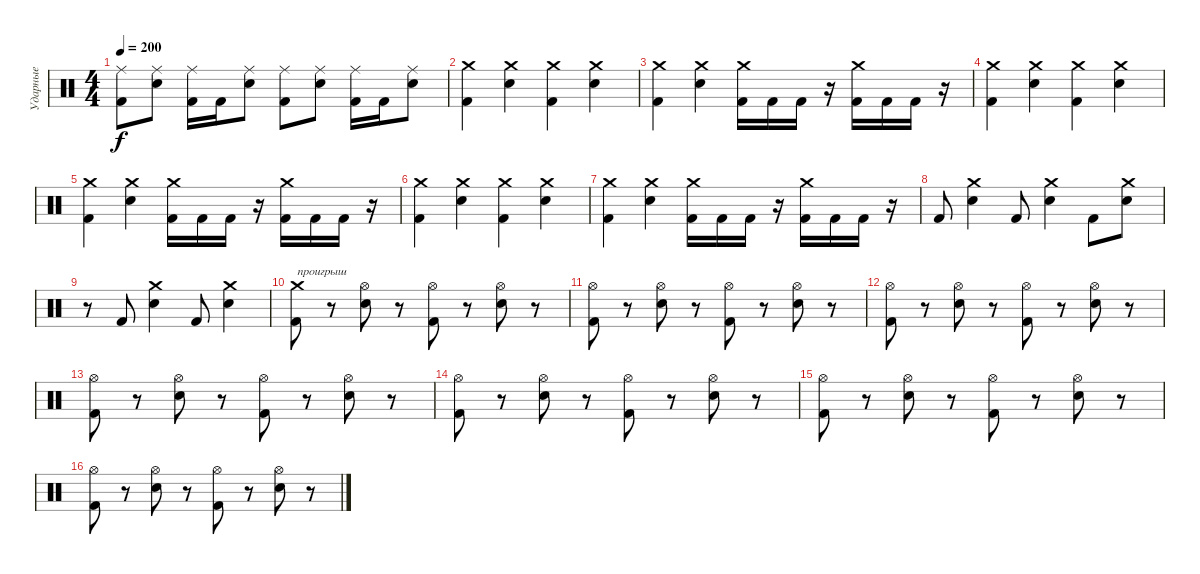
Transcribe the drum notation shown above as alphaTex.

\track ("Ударные" "Ударные") {instrument percussion}
\staff {score}
\articulation defaults
\ts (4 4)
\tempo 200
\clef neutral
\ks c
("Kick (hit) 2" "Ride (middle)").8{dy f} ("Electric Snare (hit)" "Ride (middle)").8 ("Kick (hit) 2" "Ride (middle)").16 "Kick (hit) 2".16 ("Electric Snare (hit)" "Ride (middle)").8 ("Kick (hit) 2" "Ride (middle)").8 ("Electric Snare (hit)" "Ride (middle)").8 ("Kick (hit) 2" "Ride (middle)").16 "Kick (hit) 2".16 ("Electric Snare (hit)" "Ride (middle)").8 |
("Kick (hit) 2" "Crash medium (hit)").4 ("Snare (hit) 2" "Crash medium (hit)").4 ("Kick (hit) 2" "Crash medium (hit)").4 ("Snare (hit) 2" "Crash medium (hit)").4 |
("Kick (hit) 2" "Crash medium (hit)").4 ("Snare (hit) 2" "Crash medium (hit)").4 ("Kick (hit) 2" "Crash medium (hit)").16 "Kick (hit) 2".16 "Kick (hit) 2".16 r.16 ("Kick (hit) 2" "Crash medium (hit)").16 "Kick (hit) 2".16 "Kick (hit) 2".16 r.16 |
("Kick (hit) 2" "Crash medium (hit)").4 ("Snare (hit) 2" "Crash medium (hit)").4 ("Kick (hit) 2" "Crash medium (hit)").4 ("Snare (hit) 2" "Crash medium (hit)").4 |
("Kick (hit) 2" "Crash medium (hit)").4 ("Snare (hit) 2" "Crash medium (hit)").4 ("Kick (hit) 2" "Crash medium (hit)").16 "Kick (hit) 2".16 "Kick (hit) 2".16 r.16 ("Kick (hit) 2" "Crash medium (hit)").16 "Kick (hit) 2".16 "Kick (hit) 2".16 r.16 |
("Kick (hit) 2" "Crash medium (hit)").4 ("Snare (hit) 2" "Crash medium (hit)").4 ("Kick (hit) 2" "Crash medium (hit)").4 ("Snare (hit) 2" "Crash medium (hit)").4 |
("Kick (hit) 2" "Crash medium (hit)").4 ("Snare (hit) 2" "Crash medium (hit)").4 ("Kick (hit) 2" "Crash medium (hit)").16 "Kick (hit) 2".16 "Kick (hit) 2".16 r.16 ("Kick (hit) 2" "Crash medium (hit)").16 "Kick (hit) 2".16 "Kick (hit) 2".16 r.16 |
"Kick (hit) 2".8 ("Snare (hit) 2" "Crash medium (hit)").4 "Kick (hit) 2".8 ("Snare (hit) 2" "Crash medium (hit)").4 "Kick (hit) 2".8 ("Snare (hit) 2" "Crash medium (hit)").8 |
r.8 "Kick (hit) 2".8 ("Snare (hit) 2" "Crash medium (hit)").4 "Kick (hit) 2".8 ("Snare (hit) 2" "Crash medium (hit)").4 |
("Crash medium (hit)" "Kick (hit) 2").8{txt "проигрыш"} r.8 ("Hi-Hat (open)" "Snare (hit) 2").8 r.8 ("Hi-Hat (open)" "Kick (hit) 2").8 r.8 ("Hi-Hat (open)" "Snare (hit) 2").8 r.8 |
("Hi-Hat (open)" "Kick (hit) 2").8 r.8 ("Hi-Hat (open)" "Snare (hit) 2").8 r.8 ("Hi-Hat (open)" "Kick (hit) 2").8 r.8 ("Hi-Hat (open)" "Snare (hit) 2").8 r.8 |
("Hi-Hat (open)" "Kick (hit) 2").8 r.8 ("Hi-Hat (open)" "Snare (hit) 2").8 r.8 ("Hi-Hat (open)" "Kick (hit) 2").8 r.8 ("Hi-Hat (open)" "Snare (hit) 2").8 r.8 |
("Hi-Hat (open)" "Kick (hit) 2").8 r.8 ("Hi-Hat (open)" "Snare (hit) 2").8 r.8 ("Hi-Hat (open)" "Kick (hit) 2").8 r.8 ("Hi-Hat (open)" "Snare (hit) 2").8 r.8 |
("Hi-Hat (open)" "Kick (hit) 2").8 r.8 ("Hi-Hat (open)" "Snare (hit) 2").8 r.8 ("Hi-Hat (open)" "Kick (hit) 2").8 r.8 ("Hi-Hat (open)" "Snare (hit) 2").8 r.8 |
("Hi-Hat (open)" "Kick (hit) 2").8 r.8 ("Hi-Hat (open)" "Snare (hit) 2").8 r.8 ("Hi-Hat (open)" "Kick (hit) 2").8 r.8 ("Hi-Hat (open)" "Snare (hit) 2").8 r.8 |
("Hi-Hat (open)" "Kick (hit) 2").8 r.8 ("Hi-Hat (open)" "Snare (hit) 2").8 r.8 ("Hi-Hat (open)" "Kick (hit) 2").8 r.8 ("Hi-Hat (open)" "Snare (hit) 2").8 r.8
